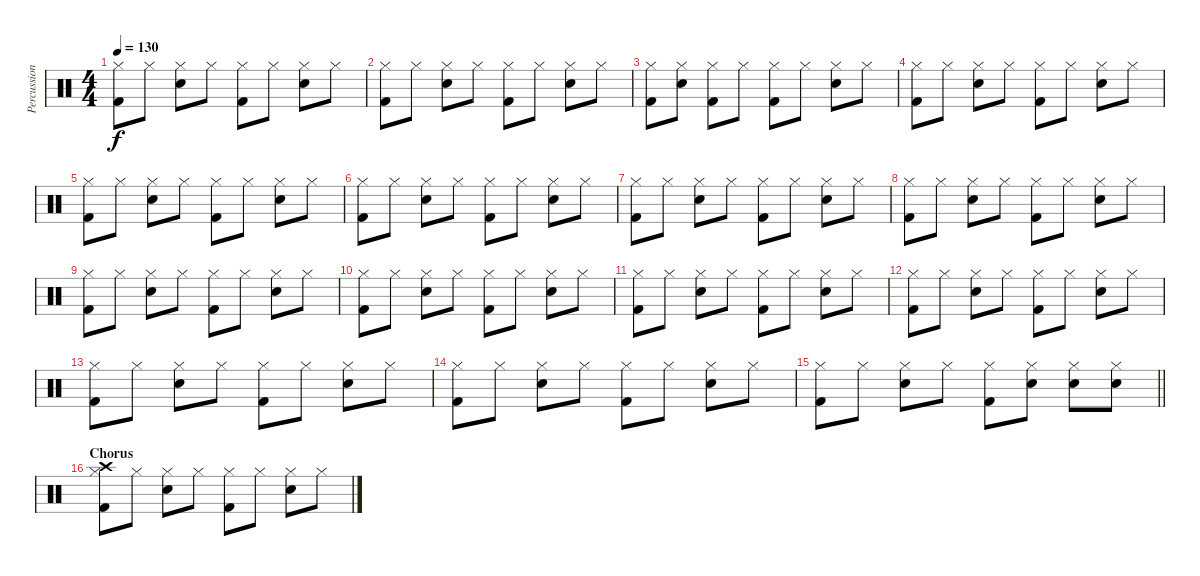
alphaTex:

\track ("Percussion" "Percussion") {instrument percussion}
\staff {score}
\articulation defaults
\ts (4 4)
\tempo 130
\clef neutral
\ks c
("Kick (hit) 2" "Hi-Hat (closed)").8{dy f} "Hi-Hat (closed)".8 ("Hi-Hat (closed)" "Snare (hit) 2").8 "Hi-Hat (closed)".8 ("Hi-Hat (closed)" "Kick (hit) 2").8 "Hi-Hat (closed)".8 ("Hi-Hat (closed)" "Snare (hit) 2").8 "Hi-Hat (closed)".8 |
("Kick (hit) 2" "Hi-Hat (closed)").8 "Hi-Hat (closed)".8 ("Hi-Hat (closed)" "Snare (hit) 2").8 "Hi-Hat (closed)".8 ("Hi-Hat (closed)" "Kick (hit) 2").8 "Hi-Hat (closed)".8 ("Hi-Hat (closed)" "Snare (hit) 2").8 "Hi-Hat (closed)".8 |
("Kick (hit) 2" "Hi-Hat (closed)").8 ("Hi-Hat (closed)" "Snare (hit) 2").8 ("Hi-Hat (closed)" "Kick (hit) 2").8 "Hi-Hat (closed)".8 ("Hi-Hat (closed)" "Kick (hit) 2").8 "Hi-Hat (closed)".8 ("Hi-Hat (closed)" "Snare (hit) 2").8 "Hi-Hat (closed)".8 |
("Kick (hit) 2" "Hi-Hat (closed)").8 "Hi-Hat (closed)".8 ("Hi-Hat (closed)" "Snare (hit) 2").8 "Hi-Hat (closed)".8 ("Hi-Hat (closed)" "Kick (hit) 2").8 "Hi-Hat (closed)".8 ("Hi-Hat (closed)" "Snare (hit) 2").8 "Hi-Hat (closed)".8 |
("Kick (hit) 2" "Hi-Hat (closed)").8 "Hi-Hat (closed)".8 ("Hi-Hat (closed)" "Snare (hit) 2").8 "Hi-Hat (closed)".8 ("Hi-Hat (closed)" "Kick (hit) 2").8 "Hi-Hat (closed)".8 ("Hi-Hat (closed)" "Snare (hit) 2").8 "Hi-Hat (closed)".8 |
("Kick (hit) 2" "Hi-Hat (closed)").8 "Hi-Hat (closed)".8 ("Hi-Hat (closed)" "Snare (hit) 2").8 "Hi-Hat (closed)".8 ("Hi-Hat (closed)" "Kick (hit) 2").8 "Hi-Hat (closed)".8 ("Hi-Hat (closed)" "Snare (hit) 2").8 "Hi-Hat (closed)".8 |
("Kick (hit) 2" "Hi-Hat (closed)").8 "Hi-Hat (closed)".8 ("Hi-Hat (closed)" "Snare (hit) 2").8 "Hi-Hat (closed)".8 ("Hi-Hat (closed)" "Kick (hit) 2").8 "Hi-Hat (closed)".8 ("Hi-Hat (closed)" "Snare (hit) 2").8 "Hi-Hat (closed)".8 |
("Kick (hit) 2" "Hi-Hat (closed)").8 "Hi-Hat (closed)".8 ("Hi-Hat (closed)" "Snare (hit) 2").8 "Hi-Hat (closed)".8 ("Hi-Hat (closed)" "Kick (hit) 2").8 "Hi-Hat (closed)".8 ("Hi-Hat (closed)" "Snare (hit) 2").8 "Hi-Hat (closed)".8 |
("Kick (hit) 2" "Hi-Hat (closed)").8 "Hi-Hat (closed)".8 ("Hi-Hat (closed)" "Snare (hit) 2").8 "Hi-Hat (closed)".8 ("Hi-Hat (closed)" "Kick (hit) 2").8 "Hi-Hat (closed)".8 ("Hi-Hat (closed)" "Snare (hit) 2").8 "Hi-Hat (closed)".8 |
("Kick (hit) 2" "Hi-Hat (closed)").8 "Hi-Hat (closed)".8 ("Hi-Hat (closed)" "Snare (hit) 2").8 "Hi-Hat (closed)".8 ("Hi-Hat (closed)" "Kick (hit) 2").8 "Hi-Hat (closed)".8 ("Hi-Hat (closed)" "Snare (hit) 2").8 "Hi-Hat (closed)".8 |
("Kick (hit) 2" "Hi-Hat (closed)").8 "Hi-Hat (closed)".8 ("Hi-Hat (closed)" "Snare (hit) 2").8 "Hi-Hat (closed)".8 ("Hi-Hat (closed)" "Kick (hit) 2").8 "Hi-Hat (closed)".8 ("Hi-Hat (closed)" "Snare (hit) 2").8 "Hi-Hat (closed)".8 |
("Kick (hit) 2" "Hi-Hat (closed)").8 "Hi-Hat (closed)".8 ("Hi-Hat (closed)" "Snare (hit) 2").8 "Hi-Hat (closed)".8 ("Hi-Hat (closed)" "Kick (hit) 2").8 "Hi-Hat (closed)".8 ("Hi-Hat (closed)" "Snare (hit) 2").8 "Hi-Hat (closed)".8 |
("Kick (hit) 2" "Hi-Hat (closed)").8 "Hi-Hat (closed)".8 ("Hi-Hat (closed)" "Snare (hit) 2").8 "Hi-Hat (closed)".8 ("Hi-Hat (closed)" "Kick (hit) 2").8 "Hi-Hat (closed)".8 ("Hi-Hat (closed)" "Snare (hit) 2").8 "Hi-Hat (closed)".8 |
("Kick (hit) 2" "Hi-Hat (closed)").8 "Hi-Hat (closed)".8 ("Hi-Hat (closed)" "Snare (hit) 2").8 "Hi-Hat (closed)".8 ("Hi-Hat (closed)" "Kick (hit) 2").8 "Hi-Hat (closed)".8 ("Hi-Hat (closed)" "Snare (hit) 2").8 "Hi-Hat (closed)".8 |
\barLineRight lightlight
("Kick (hit) 2" "Hi-Hat (closed)").8 "Hi-Hat (closed)".8 ("Hi-Hat (closed)" "Snare (hit) 2").8 "Hi-Hat (closed)".8 ("Hi-Hat (closed)" "Kick (hit) 2").8 ("Hi-Hat (closed)" "Snare (hit) 2").8 ("Hi-Hat (closed)" "Snare (hit) 2").8 ("Hi-Hat (closed)" "Snare (hit) 2").8 |
\section ("" "Chorus")
("Kick (hit) 2" "Hi-Hat (closed)" "Crash high (hit)").8 "Hi-Hat (closed)".8 ("Hi-Hat (closed)" "Snare (hit) 2").8 "Hi-Hat (closed)".8 ("Hi-Hat (closed)" "Kick (hit) 2").8 "Hi-Hat (closed)".8 ("Hi-Hat (closed)" "Snare (hit) 2").8 "Hi-Hat (closed)".8
